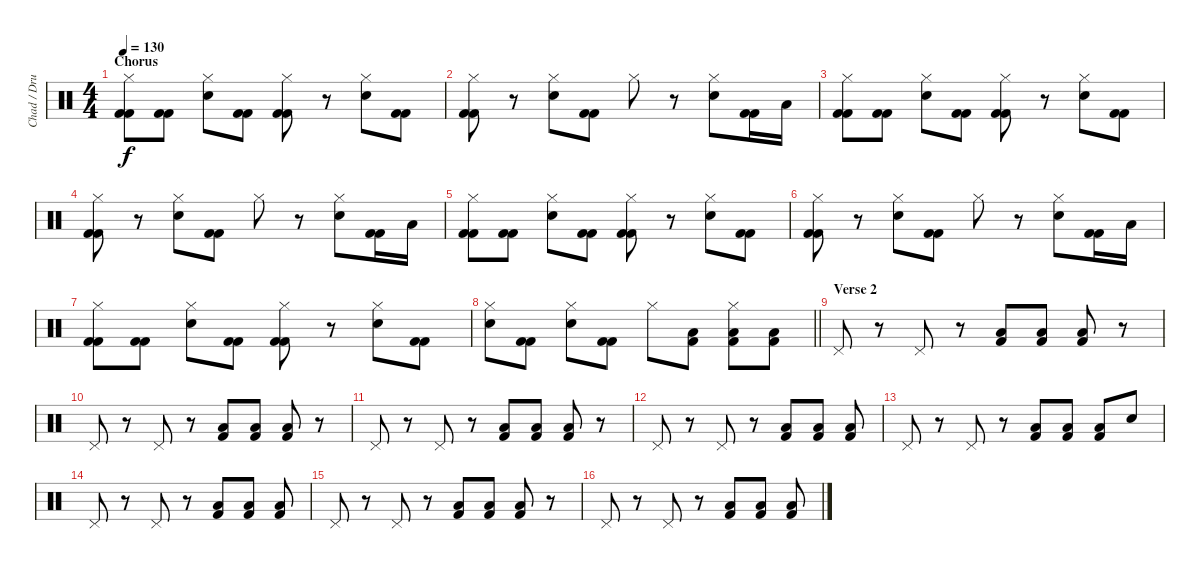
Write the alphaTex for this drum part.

\track ("Chad / Drums" "Chad / Dru") {instrument percussion}
\staff {score}
\articulation defaults
\ts (4 4)
\section ("" "Chorus")
\tempo 130
\clef neutral
\ks c
("Hi-Hat (closed)" "Kick (hit) 2" "Kick (hit) 2").8{dy f} ("Kick (hit) 2" "Kick (hit) 2").8 ("Hi-Hat (closed)" "Snare (hit) 2").8 ("Kick (hit) 2" "Kick (hit) 2").8 ("Hi-Hat (closed)" "Kick (hit) 2" "Kick (hit) 2").8 r.8 ("Hi-Hat (closed)" "Snare (hit) 2").8 ("Kick (hit) 2" "Kick (hit) 2").8 |
("Hi-Hat (closed)" "Kick (hit) 2" "Kick (hit) 2").8 r.8 ("Hi-Hat (closed)" "Snare (hit) 2").8 ("Kick (hit) 2" "Kick (hit) 2").8 "Hi-Hat (closed)".8 r.8 ("Hi-Hat (closed)" "Snare (hit) 2").8 ("Kick (hit) 2" "Kick (hit) 2").16 "Low Floor Tom (hit)".16 |
("Hi-Hat (closed)" "Kick (hit) 2" "Kick (hit) 2").8 ("Kick (hit) 2" "Kick (hit) 2").8 ("Hi-Hat (closed)" "Snare (hit) 2").8 ("Kick (hit) 2" "Kick (hit) 2").8 ("Hi-Hat (closed)" "Kick (hit) 2" "Kick (hit) 2").8 r.8 ("Hi-Hat (closed)" "Snare (hit) 2").8 ("Kick (hit) 2" "Kick (hit) 2").8 |
("Hi-Hat (closed)" "Kick (hit) 2" "Kick (hit) 2").8 r.8 ("Hi-Hat (closed)" "Snare (hit) 2").8 ("Kick (hit) 2" "Kick (hit) 2").8 "Hi-Hat (closed)".8 r.8 ("Hi-Hat (closed)" "Snare (hit) 2").8 ("Kick (hit) 2" "Kick (hit) 2").16 "Low Floor Tom (hit)".16 |
("Hi-Hat (closed)" "Kick (hit) 2" "Kick (hit) 2").8 ("Kick (hit) 2" "Kick (hit) 2").8 ("Hi-Hat (closed)" "Snare (hit) 2").8 ("Kick (hit) 2" "Kick (hit) 2").8 ("Hi-Hat (closed)" "Kick (hit) 2" "Kick (hit) 2").8 r.8 ("Hi-Hat (closed)" "Snare (hit) 2").8 ("Kick (hit) 2" "Kick (hit) 2").8 |
("Hi-Hat (closed)" "Kick (hit) 2" "Kick (hit) 2").8 r.8 ("Hi-Hat (closed)" "Snare (hit) 2").8 ("Kick (hit) 2" "Kick (hit) 2").8 "Hi-Hat (closed)".8 r.8 ("Hi-Hat (closed)" "Snare (hit) 2").8 ("Kick (hit) 2" "Kick (hit) 2").16 "Low Floor Tom (hit)".16 |
("Hi-Hat (closed)" "Kick (hit) 2" "Kick (hit) 2").8 ("Kick (hit) 2" "Kick (hit) 2").8 ("Hi-Hat (closed)" "Snare (hit) 2").8 ("Kick (hit) 2" "Kick (hit) 2").8 ("Hi-Hat (closed)" "Kick (hit) 2" "Kick (hit) 2").8 r.8 ("Hi-Hat (closed)" "Snare (hit) 2").8 ("Kick (hit) 2" "Kick (hit) 2").8 |
\barLineRight lightlight
("Hi-Hat (closed)" "Snare (hit) 2").8 ("Kick (hit) 2" "Kick (hit) 2").8 ("Hi-Hat (closed)" "Snare (hit) 2").8 ("Kick (hit) 2" "Kick (hit) 2").8 "Hi-Hat (closed)".8 ("Low Floor Tom (hit)" "Kick (hit) 2").8 ("Hi-Hat (closed)" "Low Floor Tom (hit)" "Kick (hit) 2").8 ("Low Floor Tom (hit)" "Kick (hit) 2").8 |
\section ("" "Verse 2")
"Pedal Hi-Hat (hit)".8 r.8 "Pedal Hi-Hat (hit)".8 r.8 ("Low Floor Tom (hit)" "Kick (hit) 2").8 ("Low Floor Tom (hit)" "Kick (hit) 2").8 ("Low Floor Tom (hit)" "Kick (hit) 2").8 r.8 |
"Pedal Hi-Hat (hit)".8 r.8 "Pedal Hi-Hat (hit)".8 r.8 ("Low Floor Tom (hit)" "Kick (hit) 2").8 ("Low Floor Tom (hit)" "Kick (hit) 2").8 ("Low Floor Tom (hit)" "Kick (hit) 2").8 r.8 |
"Pedal Hi-Hat (hit)".8 r.8 "Pedal Hi-Hat (hit)".8 r.8 ("Low Floor Tom (hit)" "Kick (hit) 2").8 ("Low Floor Tom (hit)" "Kick (hit) 2").8 ("Low Floor Tom (hit)" "Kick (hit) 2").8 r.8 |
"Pedal Hi-Hat (hit)".8 r.8 "Pedal Hi-Hat (hit)".8 r.8 ("Low Floor Tom (hit)" "Kick (hit) 2").8 ("Low Floor Tom (hit)" "Kick (hit) 2").8 ("Low Floor Tom (hit)" "Kick (hit) 2").8 |
"Pedal Hi-Hat (hit)".8 r.8 "Pedal Hi-Hat (hit)".8 r.8 ("Low Floor Tom (hit)" "Kick (hit) 2").8 ("Low Floor Tom (hit)" "Kick (hit) 2").8 ("Low Floor Tom (hit)" "Kick (hit) 2").8 "Snare (hit) 2".8 |
"Pedal Hi-Hat (hit)".8 r.8 "Pedal Hi-Hat (hit)".8 r.8 ("Low Floor Tom (hit)" "Kick (hit) 2").8 ("Low Floor Tom (hit)" "Kick (hit) 2").8 ("Low Floor Tom (hit)" "Kick (hit) 2").8 |
"Pedal Hi-Hat (hit)".8 r.8 "Pedal Hi-Hat (hit)".8 r.8 ("Low Floor Tom (hit)" "Kick (hit) 2").8 ("Low Floor Tom (hit)" "Kick (hit) 2").8 ("Low Floor Tom (hit)" "Kick (hit) 2").8 r.8 |
"Pedal Hi-Hat (hit)".8 r.8 "Pedal Hi-Hat (hit)".8 r.8 ("Low Floor Tom (hit)" "Kick (hit) 2").8 ("Low Floor Tom (hit)" "Kick (hit) 2").8 ("Low Floor Tom (hit)" "Kick (hit) 2").8
